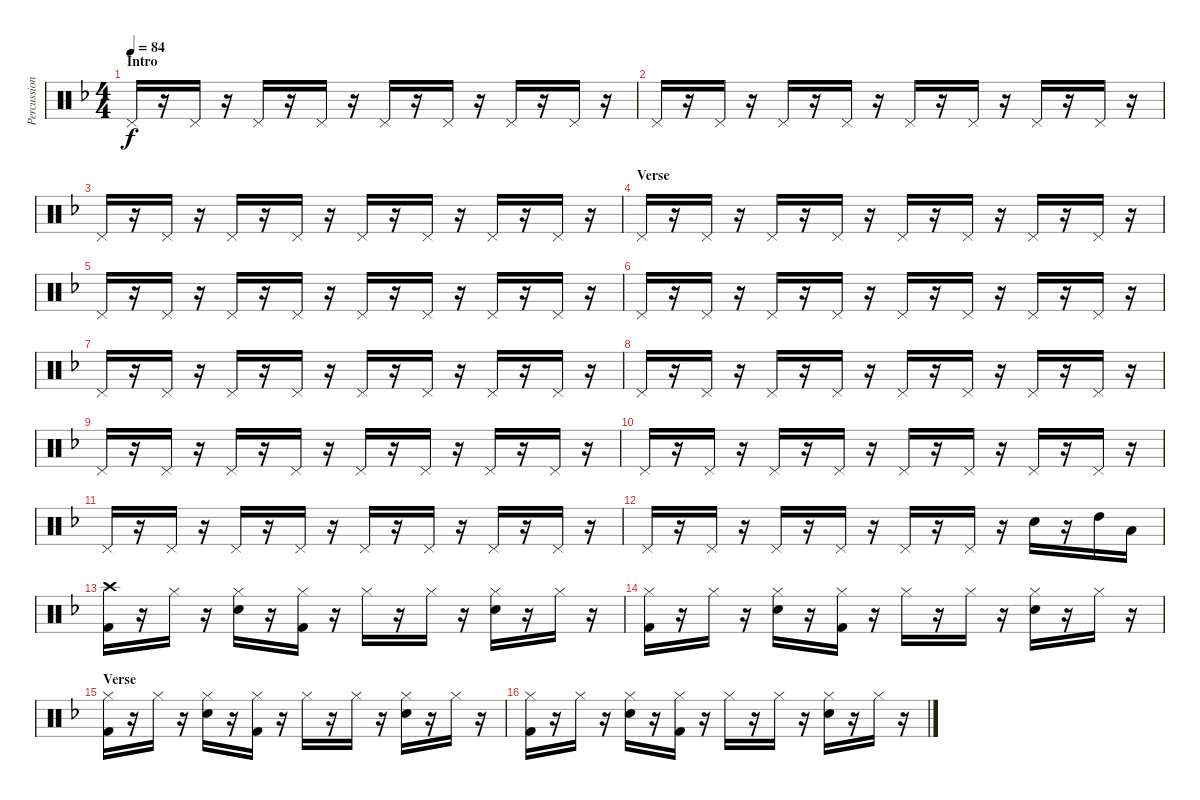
\track ("Percussion" "Percussion") {instrument percussion}
\staff {score}
\articulation defaults
\ts (4 4)
\section ("" "Intro")
\tempo 84
\clef neutral
\ks f "Pedal Hi-Hat (hit)".16{dy f volume 4}
r.16 "Pedal Hi-Hat (hit)".16 r.16 "Pedal Hi-Hat (hit)".16 r.16 "Pedal Hi-Hat (hit)".16 r.16 "Pedal Hi-Hat (hit)".16 r.16 "Pedal Hi-Hat (hit)".16 r.16 "Pedal Hi-Hat (hit)".16 r.16 "Pedal Hi-Hat (hit)".16 r.16 |
"Pedal Hi-Hat (hit)".16 r.16 "Pedal Hi-Hat (hit)".16 r.16 "Pedal Hi-Hat (hit)".16 r.16 "Pedal Hi-Hat (hit)".16 r.16 "Pedal Hi-Hat (hit)".16 r.16 "Pedal Hi-Hat (hit)".16 r.16 "Pedal Hi-Hat (hit)".16 r.16 "Pedal Hi-Hat (hit)".16 r.16 |
"Pedal Hi-Hat (hit)".16 r.16 "Pedal Hi-Hat (hit)".16 r.16 "Pedal Hi-Hat (hit)".16 r.16 "Pedal Hi-Hat (hit)".16 r.16 "Pedal Hi-Hat (hit)".16 r.16 "Pedal Hi-Hat (hit)".16 r.16 "Pedal Hi-Hat (hit)".16 r.16 "Pedal Hi-Hat (hit)".16 r.16 |
\section ("" "Verse")
"Pedal Hi-Hat (hit)".16 r.16 "Pedal Hi-Hat (hit)".16 r.16 "Pedal Hi-Hat (hit)".16 r.16 "Pedal Hi-Hat (hit)".16 r.16 "Pedal Hi-Hat (hit)".16 r.16 "Pedal Hi-Hat (hit)".16 r.16 "Pedal Hi-Hat (hit)".16 r.16 "Pedal Hi-Hat (hit)".16 r.16 |
"Pedal Hi-Hat (hit)".16 r.16 "Pedal Hi-Hat (hit)".16 r.16 "Pedal Hi-Hat (hit)".16 r.16 "Pedal Hi-Hat (hit)".16 r.16 "Pedal Hi-Hat (hit)".16 r.16 "Pedal Hi-Hat (hit)".16 r.16 "Pedal Hi-Hat (hit)".16 r.16 "Pedal Hi-Hat (hit)".16 r.16 |
"Pedal Hi-Hat (hit)".16 r.16 "Pedal Hi-Hat (hit)".16 r.16 "Pedal Hi-Hat (hit)".16 r.16 "Pedal Hi-Hat (hit)".16 r.16 "Pedal Hi-Hat (hit)".16 r.16 "Pedal Hi-Hat (hit)".16 r.16 "Pedal Hi-Hat (hit)".16 r.16 "Pedal Hi-Hat (hit)".16 r.16 |
"Pedal Hi-Hat (hit)".16 r.16 "Pedal Hi-Hat (hit)".16 r.16 "Pedal Hi-Hat (hit)".16 r.16 "Pedal Hi-Hat (hit)".16 r.16 "Pedal Hi-Hat (hit)".16 r.16 "Pedal Hi-Hat (hit)".16 r.16 "Pedal Hi-Hat (hit)".16 r.16 "Pedal Hi-Hat (hit)".16 r.16 |
"Pedal Hi-Hat (hit)".16 r.16 "Pedal Hi-Hat (hit)".16 r.16 "Pedal Hi-Hat (hit)".16 r.16 "Pedal Hi-Hat (hit)".16 r.16 "Pedal Hi-Hat (hit)".16 r.16 "Pedal Hi-Hat (hit)".16 r.16 "Pedal Hi-Hat (hit)".16 r.16 "Pedal Hi-Hat (hit)".16 r.16 |
"Pedal Hi-Hat (hit)".16 r.16 "Pedal Hi-Hat (hit)".16 r.16 "Pedal Hi-Hat (hit)".16 r.16 "Pedal Hi-Hat (hit)".16 r.16 "Pedal Hi-Hat (hit)".16 r.16 "Pedal Hi-Hat (hit)".16 r.16 "Pedal Hi-Hat (hit)".16 r.16 "Pedal Hi-Hat (hit)".16 r.16 |
"Pedal Hi-Hat (hit)".16 r.16 "Pedal Hi-Hat (hit)".16 r.16 "Pedal Hi-Hat (hit)".16 r.16 "Pedal Hi-Hat (hit)".16 r.16 "Pedal Hi-Hat (hit)".16 r.16 "Pedal Hi-Hat (hit)".16 r.16 "Pedal Hi-Hat (hit)".16 r.16 "Pedal Hi-Hat (hit)".16 r.16 |
"Pedal Hi-Hat (hit)".16 r.16 "Pedal Hi-Hat (hit)".16 r.16 "Pedal Hi-Hat (hit)".16 r.16 "Pedal Hi-Hat (hit)".16 r.16 "Pedal Hi-Hat (hit)".16 r.16 "Pedal Hi-Hat (hit)".16 r.16 "Pedal Hi-Hat (hit)".16 r.16 "Pedal Hi-Hat (hit)".16 r.16 |
"Pedal Hi-Hat (hit)".16 r.16 "Pedal Hi-Hat (hit)".16 r.16 "Pedal Hi-Hat (hit)".16 r.16 "Pedal Hi-Hat (hit)".16 r.16 "Pedal Hi-Hat (hit)".16 r.16 "Pedal Hi-Hat (hit)".16 r.16{volume 9} "Snare (hit) 2".16 r.16 "High Tom (hit)".16 "Low Tom (hit)".16 |
("Crash high (hit)" "Kick (hit) 2").16 r.16 "Hi-Hat (closed)".16 r.16 ("Hi-Hat (closed)" "Snare (hit) 2").16 r.16 ("Hi-Hat (closed)" "Kick (hit) 2").16 r.16 "Hi-Hat (closed)".16 r.16 "Hi-Hat (closed)".16 r.16 ("Hi-Hat (closed)" "Snare (hit) 2").16 r.16 "Hi-Hat (closed)".16 r.16 |
("Hi-Hat (closed)" "Kick (hit) 2").16 r.16 "Hi-Hat (closed)".16 r.16 ("Hi-Hat (closed)" "Snare (hit) 2").16 r.16 ("Hi-Hat (closed)" "Kick (hit) 2").16 r.16 "Hi-Hat (closed)".16 r.16 "Hi-Hat (closed)".16 r.16 ("Hi-Hat (closed)" "Snare (hit) 2").16 r.16 "Hi-Hat (closed)".16 r.16 |
\section ("" "Verse")
("Hi-Hat (closed)" "Kick (hit) 2").16 r.16 "Hi-Hat (closed)".16 r.16 ("Hi-Hat (closed)" "Snare (hit) 2").16 r.16 ("Hi-Hat (closed)" "Kick (hit) 2").16 r.16 "Hi-Hat (closed)".16 r.16 "Hi-Hat (closed)".16 r.16 ("Hi-Hat (closed)" "Snare (hit) 2").16 r.16 "Hi-Hat (closed)".16 r.16 |
("Hi-Hat (closed)" "Kick (hit) 2").16 r.16 "Hi-Hat (closed)".16 r.16 ("Hi-Hat (closed)" "Snare (hit) 2").16 r.16 ("Hi-Hat (closed)" "Kick (hit) 2").16 r.16 "Hi-Hat (closed)".16 r.16 "Hi-Hat (closed)".16 r.16 ("Hi-Hat (closed)" "Snare (hit) 2").16 r.16 "Hi-Hat (closed)".16 r.16
